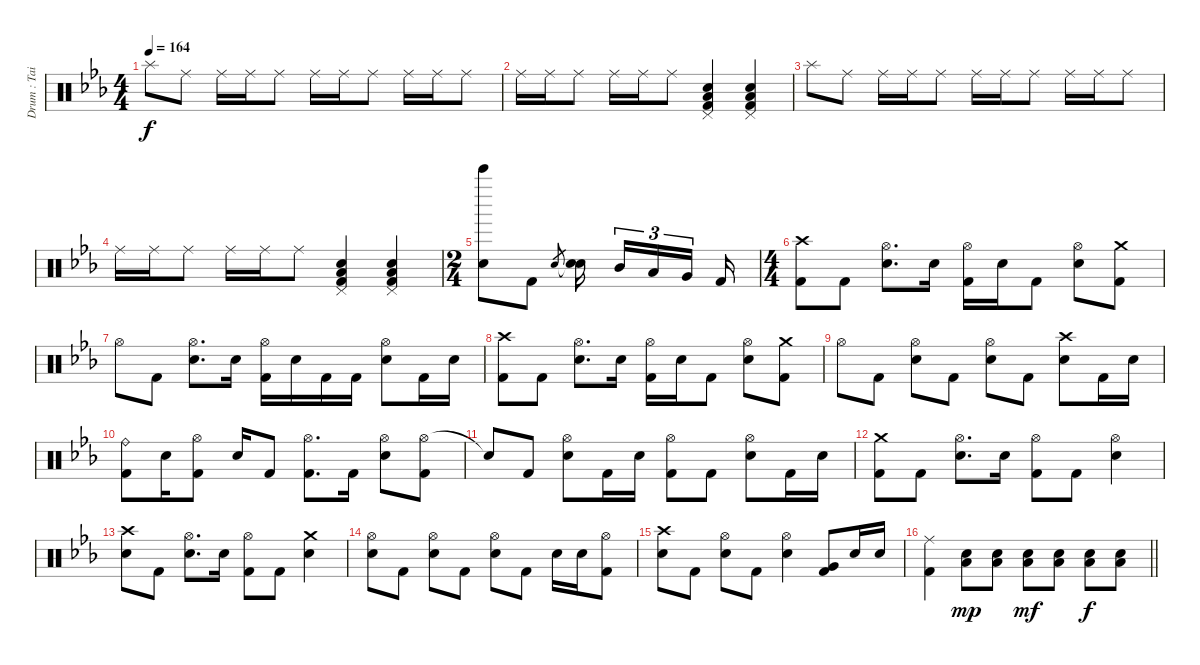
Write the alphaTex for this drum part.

\track ("Drum : Tainaka Ritsu - Chan" "Drum : Tai") {instrument percussion}
\staff {score}
\articulation defaults
\ts (4 4)
\tempo 164
\clef neutral
\ks eb "Splash (hit)".8{dy f} "Ride (middle)".8 "Ride (middle)".16 "Ride (middle)".16 "Ride (middle)".8 "Ride (middle)".16 "Ride (middle)".16 "Ride (middle)".8 "Ride (middle)".16 "Ride (middle)".16 "Ride (middle)".8
|
"Ride (middle)".16 "Ride (middle)".16 "Ride (middle)".8 "Ride (middle)".16 "Ride (middle)".16 "Ride (middle)".8 ("Pedal Hi-Hat (hit)" "Electric Snare (hit)" "Low Floor Tom (hit)" "Kick (hit) 2").4 ("Pedal Hi-Hat (hit)" "Electric Snare (hit)" "Low Floor Tom (hit)" "Kick (hit) 2").4 |
"Splash (hit)".8 "Ride (middle)".8 "Ride (middle)".16 "Ride (middle)".16 "Ride (middle)".8 "Ride (middle)".16 "Ride (middle)".16 "Ride (middle)".8 "Ride (middle)".16 "Ride (middle)".16 "Ride (middle)".8 |
"Ride (middle)".16 "Ride (middle)".16 "Ride (middle)".8 "Ride (middle)".16 "Ride (middle)".16 "Ride (middle)".8 ("Pedal Hi-Hat (hit)" "Electric Snare (hit)" "Low Floor Tom (hit)" "Kick (hit) 2").4 ("Pedal Hi-Hat (hit)" "Electric Snare (hit)" "Low Floor Tom (hit)" "Kick (hit) 2").4 |
\ts (2 4)
("Bell Tree (hit)" "Electric Snare (hit)").8 "Kick (hit) 2".8 "Electric Snare (hit)".8{gr} ("Snare (hit)"{t} "Electric Snare (hit)").16{beam splitsecondary} "Mid Tom (hit)".16{tu (3 2)} "Low Tom (hit)".16{tu (3 2)} "Very Low Tom (hit)".16{tu (3 2) beam splitsecondary} "Kick (hit) 2".16 |
\ts (4 4)
("Crash high (hit)" "Kick (hit) 2").8 "Kick (hit) 2".8 ("Hi-Hat (open)" "Electric Snare (hit)").8{d} "Electric Snare (hit)".16 ("Hi-Hat (open)" "Kick (hit) 2").16 "Electric Snare (hit)".16 "Kick (hit) 2".8 ("Hi-Hat (open)" "Electric Snare (hit)").8 ("Crash medium (hit)" "Kick (hit) 2").8 |
"Hi-Hat (open)".8 "Kick (hit) 2".8 ("Hi-Hat (open)" "Electric Snare (hit)").8{d} "Electric Snare (hit)".16 ("Hi-Hat (open)" "Kick (hit) 2").16 "Electric Snare (hit)".16 "Kick (hit) 2".16 "Kick (hit) 2".16 ("Hi-Hat (open)" "Electric Snare (hit)").8 "Kick (hit) 2".16 "Electric Snare (hit)".16 |
("Crash high (hit)" "Kick (hit) 2").8 "Kick (hit) 2".8 ("Hi-Hat (open)" "Electric Snare (hit)").8{d} "Electric Snare (hit)".16 ("Hi-Hat (open)" "Kick (hit) 2").16 "Electric Snare (hit)".16 "Kick (hit) 2".8 ("Hi-Hat (open)" "Electric Snare (hit)").8 ("Crash medium (hit)" "Kick (hit) 2").8 |
"Hi-Hat (open)".8 "Kick (hit) 2".8 ("Hi-Hat (open)" "Electric Snare (hit)").8 "Kick (hit) 2".8 ("Hi-Hat (open)" "Electric Snare (hit)").8 "Kick (hit) 2".8 ("Crash high (hit)" "Electric Snare (hit)").8 "Kick (hit) 2".16 "Electric Snare (hit)".16 |
("Ride (bell)" "Kick (hit) 2").8 "Electric Snare (hit)".16 ("Hi-Hat (open)" "Kick (hit) 2").8 "Electric Snare (hit)".16 "Kick (hit) 2".8 ("Hi-Hat (open)" "Kick (hit) 2").8{d} "Kick (hit) 2".16 ("Hi-Hat (open)" "Electric Snare (hit)").8 ("Hi-Hat (open)" "Kick (hit) 2").8 |
"Snare (hit)"{t}.8 "Kick (hit) 2".8 ("Hi-Hat (open)" "Electric Snare (hit)").8 "Kick (hit) 2".16 "Electric Snare (hit)".16 ("Hi-Hat (open)" "Kick (hit) 2").8 "Kick (hit) 2".8 ("Hi-Hat (open)" "Electric Snare (hit)").8 "Kick (hit) 2".16 "Electric Snare (hit)".16 |
("Crash medium (hit)" "Kick (hit) 2").8 "Kick (hit) 2".8 ("Hi-Hat (open)" "Electric Snare (hit)").8{d} "Electric Snare (hit)".16 ("Hi-Hat (open)" "Kick (hit) 2").8 "Kick (hit) 2".8 ("Hi-Hat (open)" "Electric Snare (hit)").4 |
("Crash high (hit)" "Electric Snare (hit)").8 "Kick (hit) 2".8 ("Hi-Hat (open)" "Electric Snare (hit)").8{d} "Electric Snare (hit)".16 ("Hi-Hat (open)" "Kick (hit) 2").8 "Kick (hit) 2".8 ("Crash medium (hit)" "Electric Snare (hit)").4 |
("Hi-Hat (open)" "Electric Snare (hit)").8 "Kick (hit) 2".8 ("Hi-Hat (open)" "Electric Snare (hit)").8 "Kick (hit) 2".8 ("Hi-Hat (open)" "Electric Snare (hit)").8 "Kick (hit) 2".8 "Electric Snare (hit)".16 "Electric Snare (hit)".16 ("Hi-Hat (open)" "Kick (hit) 2").8 |
("Crash high (hit)" "Electric Snare (hit)").8 "Kick (hit) 2".8 ("Hi-Hat (open)" "Electric Snare (hit)").8 "Kick (hit) 2".8 ("Hi-Hat (open)" "Electric Snare (hit)").4 ("Very Low Tom (hit)" "Kick (hit) 2").8 "Electric Snare (hit)".16 "Electric Snare (hit)".16 |
\barLineRight lightlight
("Ride (middle)" "Kick (hit) 2").4 ("Electric Snare (hit)" "Low Floor Tom (hit)").8{dy mp} ("Electric Snare (hit)" "Low Floor Tom (hit)").8 ("Electric Snare (hit)" "Low Floor Tom (hit)").8{dy mf} ("Electric Snare (hit)" "Low Floor Tom (hit)").8 ("Electric Snare (hit)" "Low Floor Tom (hit)").8{dy f} ("Electric Snare (hit)" "Low Floor Tom (hit)").8
